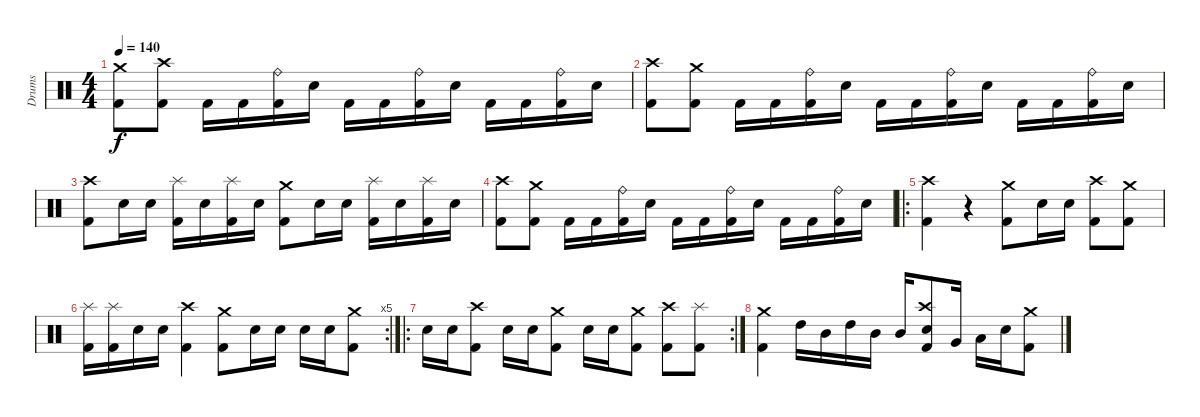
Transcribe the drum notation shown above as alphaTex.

\track ("Drums" "Drums") {instrument percussion}
\staff {score}
\articulation defaults
\ts (4 4)
\tempo 140
\clef neutral
\ks c
("Crash medium (hit)" "Kick (hit) 2").8{dy f} ("Crash high (hit)" "Kick (hit) 2").8 "Kick (hit) 2".16 "Kick (hit) 2".16 ("Ride (bell)" "Kick (hit) 2").16 "Electric Snare (hit)".16 "Kick (hit) 2".16 "Kick (hit) 2".16 ("Ride (bell)" "Kick (hit) 2").16 "Electric Snare (hit)".16 "Kick (hit) 2".16 "Kick (hit) 2".16 ("Ride (bell)" "Kick (hit) 2").16 "Electric Snare (hit)".16 |
("Crash high (hit)" "Kick (hit) 2").8 ("Crash medium (hit)" "Kick (hit) 2").8 "Kick (hit) 2".16 "Kick (hit) 2".16 ("Ride (bell)" "Kick (hit) 2").16 "Electric Snare (hit)".16 "Kick (hit) 2".16 "Kick (hit) 2".16 ("Ride (bell)" "Kick (hit) 2").16 "Electric Snare (hit)".16 "Kick (hit) 2".16 "Kick (hit) 2".16 ("Ride (bell)" "Kick (hit) 2").16 "Electric Snare (hit)".16 |
("Crash high (hit)" "Kick (hit) 2").8 "Electric Snare (hit)".16 "Electric Snare (hit)".16 ("Splash (hit)" "Kick (hit) 2").16 "Electric Snare (hit)".16 ("Splash (hit)" "Kick (hit) 2").16 "Electric Snare (hit)".16 ("Crash medium (hit)" "Kick (hit) 2").8 "Electric Snare (hit)".16 "Electric Snare (hit)".16 ("Splash (hit)" "Kick (hit) 2").16 "Electric Snare (hit)".16 ("Splash (hit)" "Kick (hit) 2").16 "Electric Snare (hit)".16 |
("Crash high (hit)" "Kick (hit) 2").8 ("Crash medium (hit)" "Kick (hit) 2").8 "Kick (hit) 2".16 "Kick (hit) 2".16 ("Ride (bell)" "Kick (hit) 2").16 "Electric Snare (hit)".16 "Kick (hit) 2".16 "Kick (hit) 2".16 ("Ride (bell)" "Kick (hit) 2").16 "Electric Snare (hit)".16 "Kick (hit) 2".16 "Kick (hit) 2".16 ("Ride (bell)" "Kick (hit) 2").16 "Electric Snare (hit)".16 |
\ro
("Crash high (hit)" "Kick (hit) 2").4 r.4 ("Crash medium (hit)" "Kick (hit) 2").8 "Electric Snare (hit)".16 "Electric Snare (hit)".16 ("Crash high (hit)" "Kick (hit) 2").8 ("Crash medium (hit)" "Kick (hit) 2").8 |
\rc 5
("Splash (hit)" "Kick (hit) 2").16 ("Splash (hit)" "Kick (hit) 2").16 "Electric Snare (hit)".16 "Electric Snare (hit)".16 ("Crash high (hit)" "Kick (hit) 2").4 ("Crash medium (hit)" "Kick (hit) 2").8 "Electric Snare (hit)".16 "Electric Snare (hit)".16 "Electric Snare (hit)".16 "Electric Snare (hit)".16 ("Crash medium (hit)" "Kick (hit) 2").8 |
\ro
\rc 2 "Electric Snare (hit)".16 "Electric Snare (hit)".16
("Crash high (hit)" "Kick (hit) 2").8 "Electric Snare (hit)".16 "Electric Snare (hit)".16 ("Crash medium (hit)" "Kick (hit) 2").8 "Electric Snare (hit)".16 "Electric Snare (hit)".16 ("Crash medium (hit)" "Kick (hit) 2").8 ("Crash high (hit)" "Kick (hit) 2").8 ("Splash (hit)" "Kick (hit) 2").8 |
("Crash medium (hit)" "Kick (hit) 2").4 "High Tom (hit)".16 "Mid Tom (hit)".16 "High Tom (hit)".16 "Mid Tom (hit)".16 "Mid Tom (hit)".16 ("Crash high (hit)" "Snare (hit)" "Kick (hit) 2").8 "Very Low Tom (hit)".16 "Low Floor Tom (hit)".16 "Electric Snare (hit)".16 ("Crash medium (hit)" "Kick (hit) 2").8
